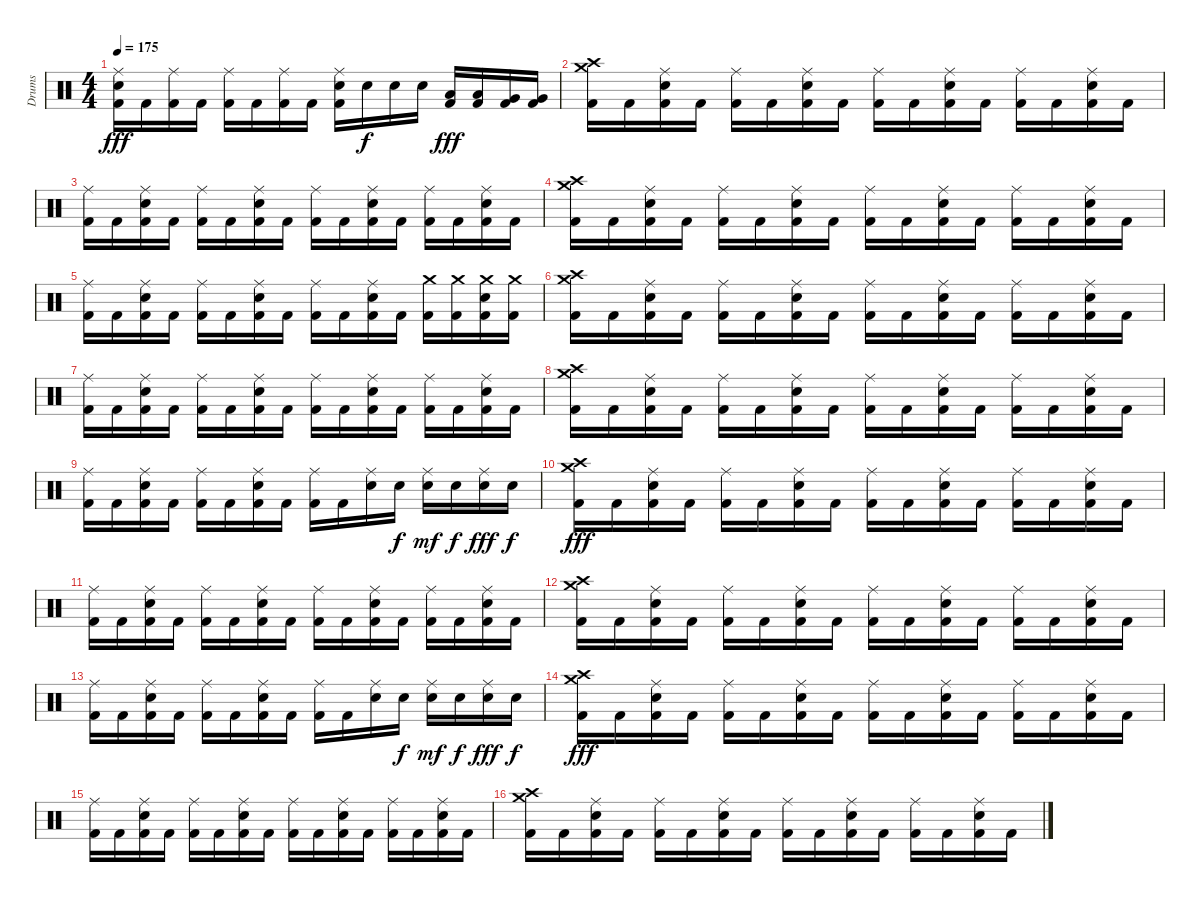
\track ("Drums" "Drums") {instrument percussion}
\staff {score}
\articulation defaults
\ts (4 4)
\tempo 175
\clef neutral
\ks c
("Ride (middle)" "Electric Snare (hit)" "Kick (hit) 2").16{dy fff} "Kick (hit) 2".16 ("Ride (middle)" "Kick (hit) 2").16 "Kick (hit) 2".16 ("Ride (middle)" "Kick (hit) 2").16 "Kick (hit) 2".16 ("Ride (middle)" "Kick (hit) 2").16 "Kick (hit) 2".16 ("Ride (middle)" "Electric Snare (hit)" "Kick (hit) 2").16 "Electric Snare (hit)".16{dy f} "Electric Snare (hit)".16 "Electric Snare (hit)".16 ("Low Tom (hit)" "Kick (hit) 2").16{dy fff} ("Low Tom (hit)" "Kick (hit) 2").16 ("Very Low Tom (hit)" "Kick (hit) 2").16 ("Very Low Tom (hit)" "Kick (hit) 2").16 |
("Crash medium (hit)" "Crash high (hit)" "Kick (hit) 2").16 "Kick (hit) 2".16 ("Ride (middle)" "Electric Snare (hit)" "Kick (hit) 2").16 "Kick (hit) 2".16 ("Ride (middle)" "Kick (hit) 2").16 "Kick (hit) 2".16 ("Ride (middle)" "Electric Snare (hit)" "Kick (hit) 2").16 "Kick (hit) 2".16 ("Ride (middle)" "Kick (hit) 2").16 "Kick (hit) 2".16 ("Ride (middle)" "Electric Snare (hit)" "Kick (hit) 2").16 "Kick (hit) 2".16 ("Ride (middle)" "Kick (hit) 2").16 "Kick (hit) 2".16 ("Ride (middle)" "Electric Snare (hit)" "Kick (hit) 2").16 "Kick (hit) 2".16 |
("Ride (middle)" "Kick (hit) 2").16 "Kick (hit) 2".16 ("Ride (middle)" "Electric Snare (hit)" "Kick (hit) 2").16 "Kick (hit) 2".16 ("Ride (middle)" "Kick (hit) 2").16 "Kick (hit) 2".16 ("Ride (middle)" "Electric Snare (hit)" "Kick (hit) 2").16 "Kick (hit) 2".16 ("Ride (middle)" "Kick (hit) 2").16 "Kick (hit) 2".16 ("Ride (middle)" "Electric Snare (hit)" "Kick (hit) 2").16 "Kick (hit) 2".16 ("Ride (middle)" "Kick (hit) 2").16 "Kick (hit) 2".16 ("Ride (middle)" "Electric Snare (hit)" "Kick (hit) 2").16 "Kick (hit) 2".16 |
("Crash medium (hit)" "Crash high (hit)" "Kick (hit) 2").16 "Kick (hit) 2".16 ("Ride (middle)" "Electric Snare (hit)" "Kick (hit) 2").16 "Kick (hit) 2".16 ("Ride (middle)" "Kick (hit) 2").16 "Kick (hit) 2".16 ("Ride (middle)" "Electric Snare (hit)" "Kick (hit) 2").16 "Kick (hit) 2".16 ("Ride (middle)" "Kick (hit) 2").16 "Kick (hit) 2".16 ("Ride (middle)" "Electric Snare (hit)" "Kick (hit) 2").16 "Kick (hit) 2".16 ("Ride (middle)" "Kick (hit) 2").16 "Kick (hit) 2".16 ("Ride (middle)" "Electric Snare (hit)" "Kick (hit) 2").16 "Kick (hit) 2".16 |
("Ride (middle)" "Kick (hit) 2").16 "Kick (hit) 2".16 ("Ride (middle)" "Electric Snare (hit)" "Kick (hit) 2").16 "Kick (hit) 2".16 ("Ride (middle)" "Kick (hit) 2").16 "Kick (hit) 2".16 ("Ride (middle)" "Electric Snare (hit)" "Kick (hit) 2").16 "Kick (hit) 2".16 ("Ride (middle)" "Kick (hit) 2").16 "Kick (hit) 2".16 ("Ride (middle)" "Electric Snare (hit)" "Kick (hit) 2").16 "Kick (hit) 2".16 ("Crash medium (hit)" "Kick (hit) 2").16 ("Crash medium (hit)" "Kick (hit) 2").16 ("Crash medium (hit)" "Electric Snare (hit)" "Kick (hit) 2").16 ("Crash medium (hit)" "Kick (hit) 2").16 |
("Crash medium (hit)" "Crash high (hit)" "Kick (hit) 2").16 "Kick (hit) 2".16 ("Ride (middle)" "Electric Snare (hit)" "Kick (hit) 2").16 "Kick (hit) 2".16 ("Ride (middle)" "Kick (hit) 2").16 "Kick (hit) 2".16 ("Ride (middle)" "Electric Snare (hit)" "Kick (hit) 2").16 "Kick (hit) 2".16 ("Ride (middle)" "Kick (hit) 2").16 "Kick (hit) 2".16 ("Ride (middle)" "Electric Snare (hit)" "Kick (hit) 2").16 "Kick (hit) 2".16 ("Ride (middle)" "Kick (hit) 2").16 "Kick (hit) 2".16 ("Ride (middle)" "Electric Snare (hit)" "Kick (hit) 2").16 "Kick (hit) 2".16 |
("Ride (middle)" "Kick (hit) 2").16 "Kick (hit) 2".16 ("Ride (middle)" "Electric Snare (hit)" "Kick (hit) 2").16 "Kick (hit) 2".16 ("Ride (middle)" "Kick (hit) 2").16 "Kick (hit) 2".16 ("Ride (middle)" "Electric Snare (hit)" "Kick (hit) 2").16 "Kick (hit) 2".16 ("Ride (middle)" "Kick (hit) 2").16 "Kick (hit) 2".16 ("Ride (middle)" "Electric Snare (hit)" "Kick (hit) 2").16 "Kick (hit) 2".16 ("Ride (middle)" "Kick (hit) 2").16 "Kick (hit) 2".16 ("Ride (middle)" "Electric Snare (hit)" "Kick (hit) 2").16 "Kick (hit) 2".16 |
("Crash medium (hit)" "Crash high (hit)" "Kick (hit) 2").16 "Kick (hit) 2".16 ("Ride (middle)" "Electric Snare (hit)" "Kick (hit) 2").16 "Kick (hit) 2".16 ("Ride (middle)" "Kick (hit) 2").16 "Kick (hit) 2".16 ("Ride (middle)" "Electric Snare (hit)" "Kick (hit) 2").16 "Kick (hit) 2".16 ("Ride (middle)" "Kick (hit) 2").16 "Kick (hit) 2".16 ("Ride (middle)" "Electric Snare (hit)" "Kick (hit) 2").16 "Kick (hit) 2".16 ("Ride (middle)" "Kick (hit) 2").16 "Kick (hit) 2".16 ("Ride (middle)" "Electric Snare (hit)" "Kick (hit) 2").16 "Kick (hit) 2".16 |
("Ride (middle)" "Kick (hit) 2").16 "Kick (hit) 2".16 ("Ride (middle)" "Electric Snare (hit)" "Kick (hit) 2").16 "Kick (hit) 2".16 ("Ride (middle)" "Kick (hit) 2").16 "Kick (hit) 2".16 ("Ride (middle)" "Electric Snare (hit)" "Kick (hit) 2").16 "Kick (hit) 2".16 ("Ride (middle)" "Kick (hit) 2").16 "Kick (hit) 2".16 ("Ride (middle)" "Electric Snare (hit)").16 "Electric Snare (hit)".16{dy f} ("Ride (middle)" "Electric Snare (hit)").16{dy mf} "Electric Snare (hit)".16{dy f} ("Ride (middle)" "Electric Snare (hit)").16{dy fff} "Electric Snare (hit)".16{dy f} |
("Crash medium (hit)" "Crash high (hit)" "Kick (hit) 2").16{dy fff} "Kick (hit) 2".16 ("Ride (middle)" "Electric Snare (hit)" "Kick (hit) 2").16 "Kick (hit) 2".16 ("Ride (middle)" "Kick (hit) 2").16 "Kick (hit) 2".16 ("Ride (middle)" "Electric Snare (hit)" "Kick (hit) 2").16 "Kick (hit) 2".16 ("Ride (middle)" "Kick (hit) 2").16 "Kick (hit) 2".16 ("Ride (middle)" "Electric Snare (hit)" "Kick (hit) 2").16 "Kick (hit) 2".16 ("Ride (middle)" "Kick (hit) 2").16 "Kick (hit) 2".16 ("Ride (middle)" "Electric Snare (hit)" "Kick (hit) 2").16 "Kick (hit) 2".16 |
("Ride (middle)" "Kick (hit) 2").16 "Kick (hit) 2".16 ("Ride (middle)" "Electric Snare (hit)" "Kick (hit) 2").16 "Kick (hit) 2".16 ("Ride (middle)" "Kick (hit) 2").16 "Kick (hit) 2".16 ("Ride (middle)" "Electric Snare (hit)" "Kick (hit) 2").16 "Kick (hit) 2".16 ("Ride (middle)" "Kick (hit) 2").16 "Kick (hit) 2".16 ("Ride (middle)" "Electric Snare (hit)" "Kick (hit) 2").16 "Kick (hit) 2".16 ("Ride (middle)" "Kick (hit) 2").16 "Kick (hit) 2".16 ("Ride (middle)" "Electric Snare (hit)" "Kick (hit) 2").16 "Kick (hit) 2".16 |
("Crash medium (hit)" "Crash high (hit)" "Kick (hit) 2").16 "Kick (hit) 2".16 ("Ride (middle)" "Electric Snare (hit)" "Kick (hit) 2").16 "Kick (hit) 2".16 ("Ride (middle)" "Kick (hit) 2").16 "Kick (hit) 2".16 ("Ride (middle)" "Electric Snare (hit)" "Kick (hit) 2").16 "Kick (hit) 2".16 ("Ride (middle)" "Kick (hit) 2").16 "Kick (hit) 2".16 ("Ride (middle)" "Electric Snare (hit)" "Kick (hit) 2").16 "Kick (hit) 2".16 ("Ride (middle)" "Kick (hit) 2").16 "Kick (hit) 2".16 ("Ride (middle)" "Electric Snare (hit)" "Kick (hit) 2").16 "Kick (hit) 2".16 |
("Ride (middle)" "Kick (hit) 2").16 "Kick (hit) 2".16 ("Ride (middle)" "Electric Snare (hit)" "Kick (hit) 2").16 "Kick (hit) 2".16 ("Ride (middle)" "Kick (hit) 2").16 "Kick (hit) 2".16 ("Ride (middle)" "Electric Snare (hit)" "Kick (hit) 2").16 "Kick (hit) 2".16 ("Ride (middle)" "Kick (hit) 2").16 "Kick (hit) 2".16 ("Ride (middle)" "Electric Snare (hit)").16 "Electric Snare (hit)".16{dy f} ("Ride (middle)" "Electric Snare (hit)").16{dy mf} "Electric Snare (hit)".16{dy f} ("Ride (middle)" "Electric Snare (hit)").16{dy fff} "Electric Snare (hit)".16{dy f} |
("Crash medium (hit)" "Crash high (hit)" "Kick (hit) 2").16{dy fff} "Kick (hit) 2".16 ("Ride (middle)" "Electric Snare (hit)" "Kick (hit) 2").16 "Kick (hit) 2".16 ("Ride (middle)" "Kick (hit) 2").16 "Kick (hit) 2".16 ("Ride (middle)" "Electric Snare (hit)" "Kick (hit) 2").16 "Kick (hit) 2".16 ("Ride (middle)" "Kick (hit) 2").16 "Kick (hit) 2".16 ("Ride (middle)" "Electric Snare (hit)" "Kick (hit) 2").16 "Kick (hit) 2".16 ("Ride (middle)" "Kick (hit) 2").16 "Kick (hit) 2".16 ("Ride (middle)" "Electric Snare (hit)" "Kick (hit) 2").16 "Kick (hit) 2".16 |
("Ride (middle)" "Kick (hit) 2").16 "Kick (hit) 2".16 ("Ride (middle)" "Electric Snare (hit)" "Kick (hit) 2").16 "Kick (hit) 2".16 ("Ride (middle)" "Kick (hit) 2").16 "Kick (hit) 2".16 ("Ride (middle)" "Electric Snare (hit)" "Kick (hit) 2").16 "Kick (hit) 2".16 ("Ride (middle)" "Kick (hit) 2").16 "Kick (hit) 2".16 ("Ride (middle)" "Electric Snare (hit)" "Kick (hit) 2").16 "Kick (hit) 2".16 ("Ride (middle)" "Kick (hit) 2").16 "Kick (hit) 2".16 ("Ride (middle)" "Electric Snare (hit)" "Kick (hit) 2").16 "Kick (hit) 2".16 |
("Crash medium (hit)" "Crash high (hit)" "Kick (hit) 2").16 "Kick (hit) 2".16 ("Ride (middle)" "Electric Snare (hit)" "Kick (hit) 2").16 "Kick (hit) 2".16 ("Ride (middle)" "Kick (hit) 2").16 "Kick (hit) 2".16 ("Ride (middle)" "Electric Snare (hit)" "Kick (hit) 2").16 "Kick (hit) 2".16 ("Ride (middle)" "Kick (hit) 2").16 "Kick (hit) 2".16 ("Ride (middle)" "Electric Snare (hit)" "Kick (hit) 2").16 "Kick (hit) 2".16 ("Ride (middle)" "Kick (hit) 2").16 "Kick (hit) 2".16 ("Ride (middle)" "Electric Snare (hit)" "Kick (hit) 2").16 "Kick (hit) 2".16
